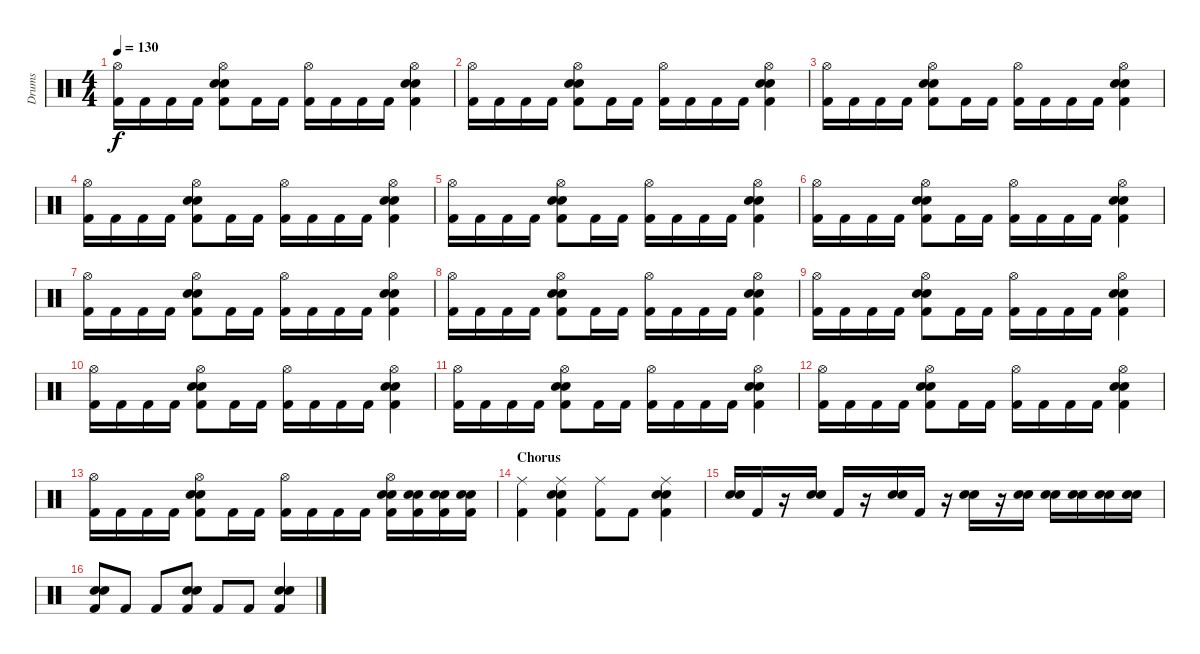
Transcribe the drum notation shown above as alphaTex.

\track ("Drums" "Drums") {instrument percussion}
\staff {score}
\articulation defaults
\ts (4 4)
\tempo 130
\clef neutral
\ks c
("Hi-Hat (open)" "Kick (hit) 2").16{dy f} "Kick (hit) 2".16 "Kick (hit) 2".16 "Kick (hit) 2".16 ("Hi-Hat (open)" "Snare (hit) 2" "Electric Snare (hit)" "Kick (hit) 2").8 "Kick (hit) 2".16 "Kick (hit) 2".16 ("Hi-Hat (open)" "Kick (hit) 2").16 "Kick (hit) 2".16 "Kick (hit) 2".16 "Kick (hit) 2".16 ("Hi-Hat (open)" "Snare (hit) 2" "Electric Snare (hit)" "Kick (hit) 2").4 |
("Hi-Hat (open)" "Kick (hit) 2").16 "Kick (hit) 2".16 "Kick (hit) 2".16 "Kick (hit) 2".16 ("Hi-Hat (open)" "Snare (hit) 2" "Electric Snare (hit)" "Kick (hit) 2").8 "Kick (hit) 2".16 "Kick (hit) 2".16 ("Hi-Hat (open)" "Kick (hit) 2").16 "Kick (hit) 2".16 "Kick (hit) 2".16 "Kick (hit) 2".16 ("Hi-Hat (open)" "Snare (hit) 2" "Electric Snare (hit)" "Kick (hit) 2").4 |
("Hi-Hat (open)" "Kick (hit) 2").16 "Kick (hit) 2".16 "Kick (hit) 2".16 "Kick (hit) 2".16 ("Hi-Hat (open)" "Snare (hit) 2" "Electric Snare (hit)" "Kick (hit) 2").8 "Kick (hit) 2".16 "Kick (hit) 2".16 ("Hi-Hat (open)" "Kick (hit) 2").16 "Kick (hit) 2".16 "Kick (hit) 2".16 "Kick (hit) 2".16 ("Hi-Hat (open)" "Snare (hit) 2" "Electric Snare (hit)" "Kick (hit) 2").4 |
("Hi-Hat (open)" "Kick (hit) 2").16 "Kick (hit) 2".16 "Kick (hit) 2".16 "Kick (hit) 2".16 ("Hi-Hat (open)" "Snare (hit) 2" "Electric Snare (hit)" "Kick (hit) 2").8 "Kick (hit) 2".16 "Kick (hit) 2".16 ("Hi-Hat (open)" "Kick (hit) 2").16 "Kick (hit) 2".16 "Kick (hit) 2".16 "Kick (hit) 2".16 ("Hi-Hat (open)" "Snare (hit) 2" "Electric Snare (hit)" "Kick (hit) 2").4 |
("Hi-Hat (open)" "Kick (hit) 2").16 "Kick (hit) 2".16 "Kick (hit) 2".16 "Kick (hit) 2".16 ("Hi-Hat (open)" "Snare (hit) 2" "Electric Snare (hit)" "Kick (hit) 2").8 "Kick (hit) 2".16 "Kick (hit) 2".16 ("Hi-Hat (open)" "Kick (hit) 2").16 "Kick (hit) 2".16 "Kick (hit) 2".16 "Kick (hit) 2".16 ("Hi-Hat (open)" "Snare (hit) 2" "Electric Snare (hit)" "Kick (hit) 2").4 |
("Hi-Hat (open)" "Kick (hit) 2").16 "Kick (hit) 2".16 "Kick (hit) 2".16 "Kick (hit) 2".16 ("Hi-Hat (open)" "Snare (hit) 2" "Electric Snare (hit)" "Kick (hit) 2").8 "Kick (hit) 2".16 "Kick (hit) 2".16 ("Hi-Hat (open)" "Kick (hit) 2").16 "Kick (hit) 2".16 "Kick (hit) 2".16 "Kick (hit) 2".16 ("Hi-Hat (open)" "Snare (hit) 2" "Electric Snare (hit)" "Kick (hit) 2").4 |
("Hi-Hat (open)" "Kick (hit) 2").16 "Kick (hit) 2".16 "Kick (hit) 2".16 "Kick (hit) 2".16 ("Hi-Hat (open)" "Snare (hit) 2" "Electric Snare (hit)" "Kick (hit) 2").8 "Kick (hit) 2".16 "Kick (hit) 2".16 ("Hi-Hat (open)" "Kick (hit) 2").16 "Kick (hit) 2".16 "Kick (hit) 2".16 "Kick (hit) 2".16 ("Hi-Hat (open)" "Snare (hit) 2" "Electric Snare (hit)" "Kick (hit) 2").4 |
("Hi-Hat (open)" "Kick (hit) 2").16 "Kick (hit) 2".16 "Kick (hit) 2".16 "Kick (hit) 2".16 ("Hi-Hat (open)" "Snare (hit) 2" "Electric Snare (hit)" "Kick (hit) 2").8 "Kick (hit) 2".16 "Kick (hit) 2".16 ("Hi-Hat (open)" "Kick (hit) 2").16 "Kick (hit) 2".16 "Kick (hit) 2".16 "Kick (hit) 2".16 ("Hi-Hat (open)" "Snare (hit) 2" "Electric Snare (hit)" "Kick (hit) 2").4 |
("Hi-Hat (open)" "Kick (hit) 2").16 "Kick (hit) 2".16 "Kick (hit) 2".16 "Kick (hit) 2".16 ("Hi-Hat (open)" "Snare (hit) 2" "Electric Snare (hit)" "Kick (hit) 2").8 "Kick (hit) 2".16 "Kick (hit) 2".16 ("Hi-Hat (open)" "Kick (hit) 2").16 "Kick (hit) 2".16 "Kick (hit) 2".16 "Kick (hit) 2".16 ("Hi-Hat (open)" "Snare (hit) 2" "Electric Snare (hit)" "Kick (hit) 2").4 |
("Hi-Hat (open)" "Kick (hit) 2").16 "Kick (hit) 2".16 "Kick (hit) 2".16 "Kick (hit) 2".16 ("Hi-Hat (open)" "Snare (hit) 2" "Electric Snare (hit)" "Kick (hit) 2").8 "Kick (hit) 2".16 "Kick (hit) 2".16 ("Hi-Hat (open)" "Kick (hit) 2").16 "Kick (hit) 2".16 "Kick (hit) 2".16 "Kick (hit) 2".16 ("Hi-Hat (open)" "Snare (hit) 2" "Electric Snare (hit)" "Kick (hit) 2").4 |
("Hi-Hat (open)" "Kick (hit) 2").16 "Kick (hit) 2".16 "Kick (hit) 2".16 "Kick (hit) 2".16 ("Hi-Hat (open)" "Snare (hit) 2" "Electric Snare (hit)" "Kick (hit) 2").8 "Kick (hit) 2".16 "Kick (hit) 2".16 ("Hi-Hat (open)" "Kick (hit) 2").16 "Kick (hit) 2".16 "Kick (hit) 2".16 "Kick (hit) 2".16 ("Hi-Hat (open)" "Snare (hit) 2" "Electric Snare (hit)" "Kick (hit) 2").4 |
("Hi-Hat (open)" "Kick (hit) 2").16 "Kick (hit) 2".16 "Kick (hit) 2".16 "Kick (hit) 2".16 ("Hi-Hat (open)" "Snare (hit) 2" "Electric Snare (hit)" "Kick (hit) 2").8 "Kick (hit) 2".16 "Kick (hit) 2".16 ("Hi-Hat (open)" "Kick (hit) 2").16 "Kick (hit) 2".16 "Kick (hit) 2".16 "Kick (hit) 2".16 ("Hi-Hat (open)" "Snare (hit) 2" "Electric Snare (hit)" "Kick (hit) 2").4 |
("Hi-Hat (open)" "Kick (hit) 2").16 "Kick (hit) 2".16 "Kick (hit) 2".16 "Kick (hit) 2".16 ("Hi-Hat (open)" "Snare (hit) 2" "Electric Snare (hit)" "Kick (hit) 2").8 "Kick (hit) 2".16 "Kick (hit) 2".16 ("Hi-Hat (open)" "Kick (hit) 2").16 "Kick (hit) 2".16 "Kick (hit) 2".16 "Kick (hit) 2".16 ("Hi-Hat (open)" "Snare (hit) 2" "Electric Snare (hit)" "Kick (hit) 2").16 ("Snare (hit) 2" "Electric Snare (hit)" "Kick (hit) 2").16 ("Snare (hit) 2" "Electric Snare (hit)" "Kick (hit) 2").16 ("Snare (hit) 2" "Electric Snare (hit)" "Kick (hit) 2").16 |
\section ("" "Chorus")
("Ride (middle)" "Kick (hit) 2").4 ("Ride (middle)" "Snare (hit) 2" "Electric Snare (hit)" "Kick (hit) 2").4 ("Ride (middle)" "Kick (hit) 2").8 "Kick (hit) 2".8 ("Ride (middle)" "Snare (hit) 2" "Electric Snare (hit)" "Kick (hit) 2").4 |
("Snare (hit) 2" "Electric Snare (hit)").16 "Kick (hit) 2".16 r.16 ("Snare (hit) 2" "Electric Snare (hit)").16 "Kick (hit) 2".16 r.16 ("Snare (hit) 2" "Electric Snare (hit)").16 "Kick (hit) 2".16 r.16 ("Snare (hit) 2" "Electric Snare (hit)").16 r.16 ("Snare (hit) 2" "Electric Snare (hit)").16 ("Snare (hit) 2" "Electric Snare (hit)").16 ("Snare (hit) 2" "Electric Snare (hit)").16 ("Snare (hit) 2" "Electric Snare (hit)").16 ("Snare (hit) 2" "Electric Snare (hit)").16 |
("Snare (hit) 2" "Electric Snare (hit)" "Kick (hit) 2").8 "Kick (hit) 2".8 "Kick (hit) 2".8 ("Snare (hit) 2" "Electric Snare (hit)" "Kick (hit) 2").8 "Kick (hit) 2".8 "Kick (hit) 2".8 ("Snare (hit) 2" "Electric Snare (hit)" "Kick (hit) 2").4
